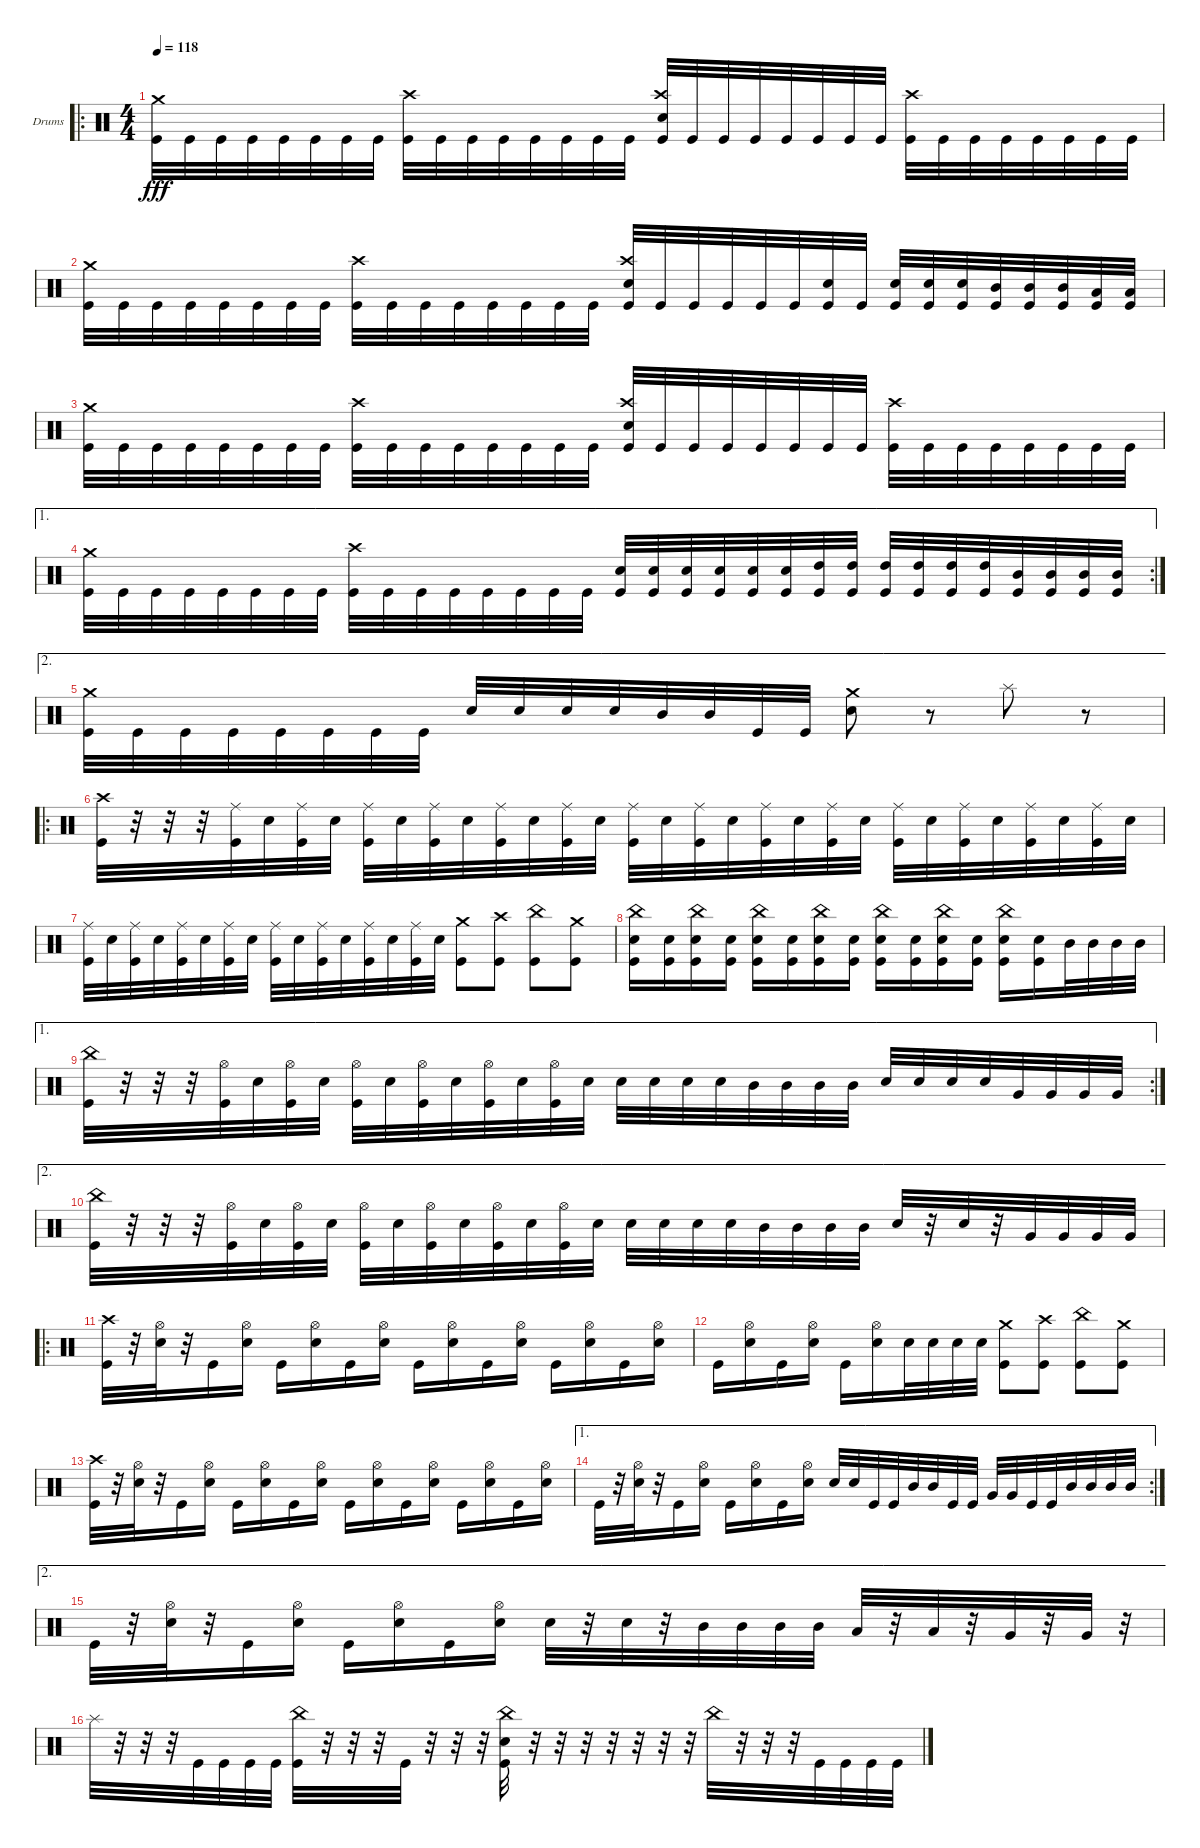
\bracketExtendMode groupsimilarinstruments
\firstSystemTrackNameOrientation horizontal
\otherSystemsTrackNameOrientation horizontal
\track ("Drumkit" "Drums") {instrument percussion}
\staff {score}
\articulation defaults
\ro
\ts (4 4)
\tempo 118
\clef neutral
\ks c
("Kick (hit)" "Crash medium (hit)").32{dy fff} "Kick (hit)".32 "Kick (hit)".32 "Kick (hit)".32 "Kick (hit)".32 "Kick (hit)".32 "Kick (hit)".32 "Kick (hit)".32 ("Kick (hit)" "Crash high (hit)").32 "Kick (hit)".32 "Kick (hit)".32 "Kick (hit)".32 "Kick (hit)".32 "Kick (hit)".32 "Kick (hit)".32 "Kick (hit)".32 ("Kick (hit)" "Crash high (hit)" "Snare (hit) 2").32 "Kick (hit)".32 "Kick (hit)".32 "Kick (hit)".32 "Kick (hit)".32 "Kick (hit)".32 "Kick (hit)".32 "Kick (hit)".32 ("Kick (hit)" "Crash high (hit)").32 "Kick (hit)".32 "Kick (hit)".32 "Kick (hit)".32 "Kick (hit)".32 "Kick (hit)".32 "Kick (hit)".32 "Kick (hit)".32 |
("Kick (hit)" "Crash medium (hit)").32 "Kick (hit)".32 "Kick (hit)".32 "Kick (hit)".32 "Kick (hit)".32 "Kick (hit)".32 "Kick (hit)".32 "Kick (hit)".32 ("Kick (hit)" "Crash high (hit)").32 "Kick (hit)".32 "Kick (hit)".32 "Kick (hit)".32 "Kick (hit)".32 "Kick (hit)".32 "Kick (hit)".32 "Kick (hit)".32 ("Kick (hit)" "Crash high (hit)" "Snare (hit) 2").32 "Kick (hit)".32 "Kick (hit)".32 "Kick (hit)".32 "Kick (hit)".32 "Kick (hit)".32 ("Kick (hit)" "Snare (hit) 2").32 "Kick (hit)".32 ("Kick (hit)" "Snare (hit) 2").32 ("Kick (hit)" "Snare (hit) 2").32 ("Kick (hit)" "Snare (hit) 2").32 ("Kick (hit)" "Mid Tom (hit)").32 ("Kick (hit)" "Mid Tom (hit)").32 ("Kick (hit)" "Mid Tom (hit)").32 ("Kick (hit)" "Low Tom (hit)").32 ("Kick (hit)" "Low Tom (hit)").32 |
("Kick (hit)" "Crash medium (hit)").32 "Kick (hit)".32 "Kick (hit)".32 "Kick (hit)".32 "Kick (hit)".32 "Kick (hit)".32 "Kick (hit)".32 "Kick (hit)".32 ("Kick (hit)" "Crash high (hit)").32 "Kick (hit)".32 "Kick (hit)".32 "Kick (hit)".32 "Kick (hit)".32 "Kick (hit)".32 "Kick (hit)".32 "Kick (hit)".32 ("Kick (hit)" "Crash high (hit)" "Snare (hit) 2").32 "Kick (hit)".32 "Kick (hit)".32 "Kick (hit)".32 "Kick (hit)".32 "Kick (hit)".32 "Kick (hit)".32 "Kick (hit)".32 ("Kick (hit)" "Crash high (hit)").32 "Kick (hit)".32 "Kick (hit)".32 "Kick (hit)".32 "Kick (hit)".32 "Kick (hit)".32 "Kick (hit)".32 "Kick (hit)".32 |
\ae 1
\rc 2
("Kick (hit)" "Crash medium (hit)").32 "Kick (hit)".32 "Kick (hit)".32 "Kick (hit)".32 "Kick (hit)".32 "Kick (hit)".32 "Kick (hit)".32 "Kick (hit)".32 ("Kick (hit)" "Crash high (hit)").32 "Kick (hit)".32 "Kick (hit)".32 "Kick (hit)".32 "Kick (hit)".32 "Kick (hit)".32 "Kick (hit)".32 "Kick (hit)".32 ("Kick (hit)" "Snare (hit) 2").32 ("Kick (hit)" "Snare (hit) 2").32 ("Kick (hit)" "Snare (hit) 2").32 ("Snare (hit) 2" "Kick (hit)").32 ("Snare (hit) 2" "Kick (hit)").32 ("Snare (hit) 2" "Kick (hit)").32 ("Kick (hit)" "High Tom (hit)").32 ("Kick (hit)" "High Tom (hit)").32 ("Kick (hit)" "High Tom (hit)").32 ("High Tom (hit)" "Kick (hit)").32 ("High Tom (hit)" "Kick (hit)").32 ("High Tom (hit)" "Kick (hit)").32 ("Kick (hit)" "Mid Tom (hit)").32 ("Kick (hit)" "Mid Tom (hit)").32 ("Kick (hit)" "Mid Tom (hit)").32 ("Kick (hit)" "Mid Tom (hit)").32 |
\ae 2
("Kick (hit)" "Crash medium (hit)").32 "Kick (hit)".32 "Kick (hit)".32 "Kick (hit)".32 "Kick (hit)".32 "Kick (hit)".32 "Kick (hit)".32 "Kick (hit)".32 "Snare (hit) 2".32 "Snare (hit) 2".32 "Snare (hit) 2".32 "Snare (hit) 2".32 "Mid Tom (hit)".32 "Mid Tom (hit)".32 "Kick (hit)".32 "Kick (hit)".32 ("Snare (hit) 2" "Crash medium (hit)").8 r.8 "Splash (hit)".8 r.8 |
\ro
("Kick (hit)" "Crash high (hit)").32 r.32 r.32 r.32 ("Kick (hit)" "Ride (middle)").32 "Snare (hit) 2".32 ("Kick (hit)" "Ride (middle)").32 "Snare (hit) 2".32 ("Kick (hit)" "Ride (middle)").32 "Snare (hit) 2".32 ("Kick (hit)" "Ride (middle)").32 "Snare (hit) 2".32 ("Kick (hit)" "Ride (middle)").32 "Snare (hit) 2".32 ("Kick (hit)" "Ride (middle)").32 "Snare (hit) 2".32 ("Kick (hit)" "Ride (middle)").32 "Snare (hit) 2".32 ("Kick (hit)" "Ride (middle)").32 "Snare (hit) 2".32 ("Kick (hit)" "Ride (middle)").32 "Snare (hit) 2".32 ("Kick (hit)" "Ride (middle)").32 "Snare (hit) 2".32 ("Kick (hit)" "Ride (middle)").32 "Snare (hit) 2".32 ("Kick (hit)" "Ride (middle)").32 "Snare (hit) 2".32 ("Kick (hit)" "Ride (middle)").32 "Snare (hit) 2".32 ("Kick (hit)" "Ride (middle)").32 "Snare (hit) 2".32 |
("Kick (hit)" "Ride (middle)").32 "Snare (hit) 2".32 ("Kick (hit)" "Ride (middle)").32 "Snare (hit) 2".32 ("Kick (hit)" "Ride (middle)").32 "Snare (hit) 2".32 ("Kick (hit)" "Ride (middle)").32 "Snare (hit) 2".32 ("Kick (hit)" "Ride (middle)").32 "Snare (hit) 2".32 ("Kick (hit)" "Ride (middle)").32 "Snare (hit) 2".32 ("Kick (hit)" "Ride (middle)").32 "Snare (hit) 2".32 ("Kick (hit)" "Ride (middle)").32 "Snare (hit) 2".32 ("Kick (hit)" "Crash medium (hit)").8 ("Kick (hit)" "Crash high (hit)").8 ("Kick (hit)" "China (hit)").8 ("Kick (hit)" "Crash medium (hit)").8 |
("Snare (hit) 2" "Kick (hit)" "China (hit)").16 ("Snare (hit) 2" "Kick (hit)").16 ("Snare (hit) 2" "Kick (hit)" "China (hit)").16 ("Snare (hit) 2" "Kick (hit)").16 ("Snare (hit) 2" "Kick (hit)" "China (hit)").16 ("Snare (hit) 2" "Kick (hit)").16 ("Snare (hit) 2" "Kick (hit)" "China (hit)").16 ("Snare (hit) 2" "Kick (hit)").16 ("Snare (hit) 2" "Kick (hit)" "China (hit)").16 ("Snare (hit) 2" "Kick (hit)").16 ("Snare (hit) 2" "Kick (hit)" "China (hit)").16 ("Snare (hit) 2" "Kick (hit)").16 ("Snare (hit) 2" "Kick (hit)" "China (hit)").16 ("Snare (hit) 2" "Kick (hit)").16 "Mid Tom (hit)".32 "Mid Tom (hit)".32 "Mid Tom (hit)".32 "Mid Tom (hit)".32 |
\ae 1
\rc 2
("Kick (hit)" "China (hit)").32 r.32 r.32 r.32 ("Kick (hit)" "Hi-Hat (open)").32 "Snare (hit) 2".32 ("Kick (hit)" "Hi-Hat (open)").32 "Snare (hit) 2".32 ("Kick (hit)" "Hi-Hat (open)").32 "Snare (hit) 2".32 ("Kick (hit)" "Hi-Hat (open)").32 "Snare (hit) 2".32 ("Kick (hit)" "Hi-Hat (open)").32 "Snare (hit) 2".32 ("Kick (hit)" "Hi-Hat (open)").32 "Snare (hit) 2".32 "Snare (hit) 2".32 "Snare (hit) 2".32 "Snare (hit) 2".32 "Snare (hit) 2".32 "Mid Tom (hit)".32 "Mid Tom (hit)".32 "Mid Tom (hit)".32 "Mid Tom (hit)".32 "Snare (hit) 2".32 "Snare (hit) 2".32 "Snare (hit) 2".32 "Snare (hit) 2".32 "Very Low Tom (hit)".32 "Very Low Tom (hit)".32 "Very Low Tom (hit)".32 "Very Low Tom (hit)".32 |
\ae 2
("Kick (hit)" "China (hit)").32 r.32 r.32 r.32 ("Kick (hit)" "Hi-Hat (open)").32 "Snare (hit) 2".32 ("Kick (hit)" "Hi-Hat (open)").32 "Snare (hit) 2".32 ("Kick (hit)" "Hi-Hat (open)").32 "Snare (hit) 2".32 ("Kick (hit)" "Hi-Hat (open)").32 "Snare (hit) 2".32 ("Kick (hit)" "Hi-Hat (open)").32 "Snare (hit) 2".32 ("Kick (hit)" "Hi-Hat (open)").32 "Snare (hit) 2".32 "Snare (hit) 2".32 "Snare (hit) 2".32 "Snare (hit) 2".32 "Snare (hit) 2".32 "Mid Tom (hit)".32 "Mid Tom (hit)".32 "Mid Tom (hit)".32 "Mid Tom (hit)".32 "Snare (hit) 2".32 r.32 "Snare (hit) 2".32 r.32 "Very Low Tom (hit)".32 "Very Low Tom (hit)".32 "Very Low Tom (hit)".32 "Very Low Tom (hit)".32 |
\ro
("Kick (hit)" "Crash high (hit)").32 r.32 ("Snare (hit) 2" "Hi-Hat (open)").32 r.32 "Kick (hit)".16 ("Snare (hit) 2" "Hi-Hat (open)").16 "Kick (hit)".16 ("Snare (hit) 2" "Hi-Hat (open)").16 "Kick (hit)".16 ("Snare (hit) 2" "Hi-Hat (open)").16 "Kick (hit)".16 ("Snare (hit) 2" "Hi-Hat (open)").16 "Kick (hit)".16 ("Snare (hit) 2" "Hi-Hat (open)").16 "Kick (hit)".16 ("Snare (hit) 2" "Hi-Hat (open)").16 "Kick (hit)".16 ("Snare (hit) 2" "Hi-Hat (open)").16 |
"Kick (hit)".16 ("Snare (hit) 2" "Hi-Hat (open)").16 "Kick (hit)".16 ("Snare (hit) 2" "Hi-Hat (open)").16 "Kick (hit)".16 ("Snare (hit) 2" "Hi-Hat (open)").16 "Snare (hit) 2".32 "Snare (hit) 2".32 "Snare (hit) 2".32 "Snare (hit) 2".32 ("Kick (hit)" "Crash medium (hit)").8 ("Kick (hit)" "Crash high (hit)").8 ("Kick (hit)" "China (hit)").8 ("Kick (hit)" "Crash medium (hit)").8 |
("Kick (hit)" "Crash high (hit)").32 r.32 ("Snare (hit) 2" "Hi-Hat (open)").32 r.32 "Kick (hit)".16 ("Snare (hit) 2" "Hi-Hat (open)").16 "Kick (hit)".16 ("Snare (hit) 2" "Hi-Hat (open)").16 "Kick (hit)".16 ("Snare (hit) 2" "Hi-Hat (open)").16 "Kick (hit)".16 ("Snare (hit) 2" "Hi-Hat (open)").16 "Kick (hit)".16 ("Snare (hit) 2" "Hi-Hat (open)").16 "Kick (hit)".16 ("Snare (hit) 2" "Hi-Hat (open)").16 "Kick (hit)".16 ("Snare (hit) 2" "Hi-Hat (open)").16 |
\ae 1
\rc 2 "Kick (hit)".32
r.32 ("Snare (hit) 2" "Hi-Hat (open)").32 r.32 "Kick (hit)".16 ("Snare (hit) 2" "Hi-Hat (open)").16 "Kick (hit)".16 ("Snare (hit) 2" "Hi-Hat (open)").16 "Kick (hit)".16 ("Snare (hit) 2" "Hi-Hat (open)").16 "Snare (hit) 2".32 "Snare (hit) 2".32 "Kick (hit)".32 "Kick (hit)".32 "Mid Tom (hit)".32 "Mid Tom (hit)".32 "Kick (hit)".32 "Kick (hit)".32 "Very Low Tom (hit)".32 "Very Low Tom (hit)".32 "Kick (hit)".32 "Kick (hit)".32 "Mid Tom (hit)".32 "Mid Tom (hit)".32 "Mid Tom (hit)".32 "Mid Tom (hit)".32 |
\ae 2 "Kick (hit)".32
r.32 ("Snare (hit) 2" "Hi-Hat (open)").32 r.32 "Kick (hit)".16 ("Snare (hit) 2" "Hi-Hat (open)").16 "Kick (hit)".16 ("Snare (hit) 2" "Hi-Hat (open)").16 "Kick (hit)".16 ("Snare (hit) 2" "Hi-Hat (open)").16 "Snare (hit) 2".32 r.32 "Snare (hit) 2".32 r.32 "Mid Tom (hit)".32 "Mid Tom (hit)".32 "Mid Tom (hit)".32 "Mid Tom (hit)".32 "Low Tom (hit)".32 r.32 "Low Tom (hit)".32 r.32 "Very Low Tom (hit)".32 r.32 "Very Low Tom (hit)".32 r.32 |
"Splash (hit)".32 r.32 r.32 r.32 "Kick (hit)".32 "Kick (hit)".32 "Kick (hit)".32 "Kick (hit)".32 ("China (hit)" "Kick (hit)").32 r.32 r.32 r.32 "Kick (hit)".32 r.32 r.32 r.32 ("China (hit)" "Kick (hit)" "Snare (hit) 2").32 r.32 r.32 r.32 r.32 r.32 r.32 r.32 "China (hit)".32 r.32 r.32 r.32 "Kick (hit)".32 "Kick (hit)".32 "Kick (hit)".32 "Kick (hit)".32
